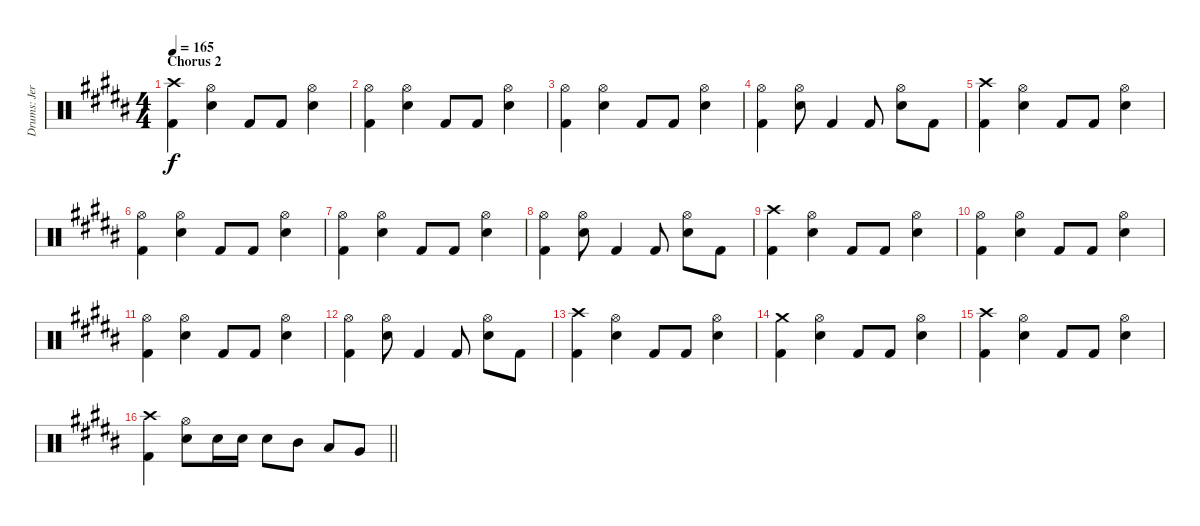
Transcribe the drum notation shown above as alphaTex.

\track ("Drums: Jere Luokkamäki" "Drums: Jer") {instrument percussion}
\staff {score}
\articulation defaults
\ts (4 4)
\section ("" "Chorus 2")
\tempo 165
\clef neutral
\ks g#minor
("Crash high (hit)" "Kick (hit) 2").4{dy f} ("Hi-Hat (open)" "Electric Snare (hit)").4 "Kick (hit) 2".8 "Kick (hit) 2".8 ("Hi-Hat (open)" "Electric Snare (hit)").4 |
("Hi-Hat (open)" "Kick (hit) 2").4 ("Hi-Hat (open)" "Electric Snare (hit)").4 "Kick (hit) 2".8 "Kick (hit) 2".8 ("Hi-Hat (open)" "Electric Snare (hit)").4 |
("Hi-Hat (open)" "Kick (hit) 2").4 ("Hi-Hat (open)" "Electric Snare (hit)").4 "Kick (hit) 2".8 "Kick (hit) 2".8 ("Hi-Hat (open)" "Electric Snare (hit)").4 |
("Hi-Hat (open)" "Kick (hit) 2").4 ("Hi-Hat (open)" "Electric Snare (hit)").8 "Kick (hit) 2".4 "Kick (hit) 2".8 ("Hi-Hat (open)" "Electric Snare (hit)").8 "Kick (hit) 2".8 |
("Crash high (hit)" "Kick (hit) 2").4 ("Hi-Hat (open)" "Electric Snare (hit)").4 "Kick (hit) 2".8 "Kick (hit) 2".8 ("Hi-Hat (open)" "Electric Snare (hit)").4 |
("Hi-Hat (open)" "Kick (hit) 2").4 ("Hi-Hat (open)" "Electric Snare (hit)").4 "Kick (hit) 2".8 "Kick (hit) 2".8 ("Hi-Hat (open)" "Electric Snare (hit)").4 |
("Hi-Hat (open)" "Kick (hit) 2").4 ("Hi-Hat (open)" "Electric Snare (hit)").4 "Kick (hit) 2".8 "Kick (hit) 2".8 ("Hi-Hat (open)" "Electric Snare (hit)").4 |
("Hi-Hat (open)" "Kick (hit) 2").4 ("Hi-Hat (open)" "Electric Snare (hit)").8 "Kick (hit) 2".4 "Kick (hit) 2".8 ("Hi-Hat (open)" "Electric Snare (hit)").8 "Kick (hit) 2".8 |
("Crash high (hit)" "Kick (hit) 2").4 ("Hi-Hat (open)" "Electric Snare (hit)").4 "Kick (hit) 2".8 "Kick (hit) 2".8 ("Hi-Hat (open)" "Electric Snare (hit)").4 |
("Hi-Hat (open)" "Kick (hit) 2").4 ("Hi-Hat (open)" "Electric Snare (hit)").4 "Kick (hit) 2".8 "Kick (hit) 2".8 ("Hi-Hat (open)" "Electric Snare (hit)").4 |
("Hi-Hat (open)" "Kick (hit) 2").4 ("Hi-Hat (open)" "Electric Snare (hit)").4 "Kick (hit) 2".8 "Kick (hit) 2".8 ("Hi-Hat (open)" "Electric Snare (hit)").4 |
("Hi-Hat (open)" "Kick (hit) 2").4 ("Hi-Hat (open)" "Electric Snare (hit)").8 "Kick (hit) 2".4 "Kick (hit) 2".8 ("Hi-Hat (open)" "Electric Snare (hit)").8 "Kick (hit) 2".8 |
("Crash high (hit)" "Kick (hit) 2").4 ("Hi-Hat (open)" "Electric Snare (hit)").4 "Kick (hit) 2".8 "Kick (hit) 2".8 ("Hi-Hat (open)" "Electric Snare (hit)").4 |
("Crash medium (hit)" "Kick (hit) 2").4 ("Hi-Hat (open)" "Electric Snare (hit)").4 "Kick (hit) 2".8 "Kick (hit) 2".8 ("Hi-Hat (open)" "Electric Snare (hit)").4 |
("Crash high (hit)" "Kick (hit) 2").4 ("Hi-Hat (open)" "Electric Snare (hit)").4 "Kick (hit) 2".8 "Kick (hit) 2".8 ("Hi-Hat (open)" "Electric Snare (hit)").4 |
\barLineRight lightlight
("Crash high (hit)" "Kick (hit) 2").4 ("Hi-Hat (open)" "Electric Snare (hit)").8 "Electric Snare (hit)".16 "Electric Snare (hit)".16 "Electric Snare (hit)".8 "Mid Tom (hit)".8 "Low Tom (hit)".8 "Very Low Tom (hit)".8
